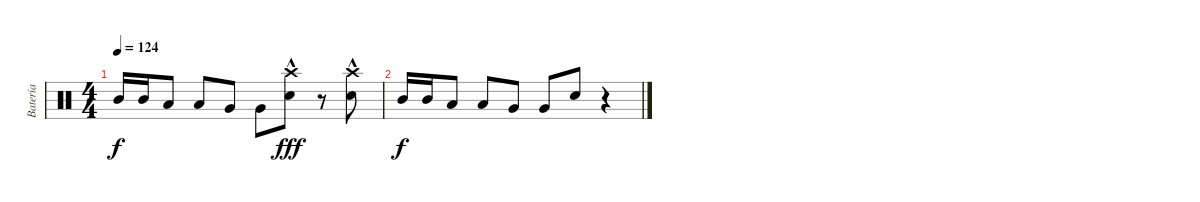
\track ("Batería" "Batería") {instrument percussion}
\staff {score}
\articulation defaults
\ts (4 4)
\tempo 124
\clef neutral
\ks c "Mid Tom (hit)".16{dy f} "Mid Tom (hit)".16 "Low Tom (hit)".8 "Low Tom (hit)".8 "Very Low Tom (hit)".8 "Very Low Tom (hit)".8
("Snare (hit) 2" "Crash high (hit)"{hac}).8{dy fff} r.8 ("Snare (hit) 2" "Crash high (hit)"{hac}).8 |
"Mid Tom (hit)".16{dy f} "Mid Tom (hit)".16 "Low Tom (hit)".8 "Low Tom (hit)".8 "Very Low Tom (hit)".8 "Very Low Tom (hit)".8 "Snare (hit) 2".8 r.4
